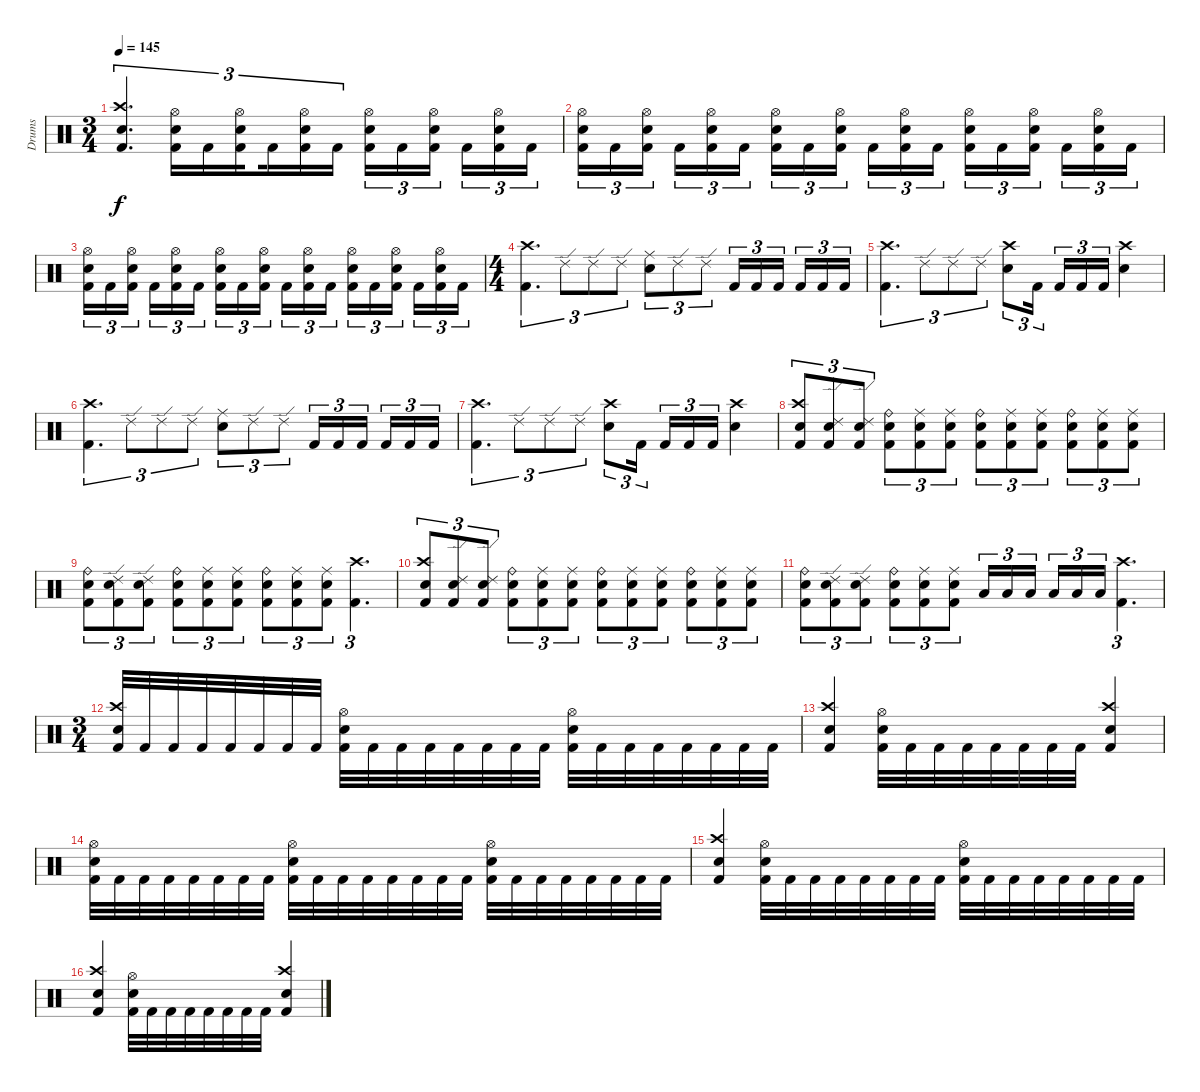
\track ("Drums" "Drums") {instrument percussion}
\staff {score}
\articulation defaults
\ts (3 4)
\tempo 145
\clef neutral
\ks c
("Kick (hit) 2" "Crash high (hit)" "Snare (hit) 2").4{d tu (3 2) dy f} ("Kick (hit) 2" "Snare (hit) 2" "Hi-Hat (open)").16{tu (3 2)} "Kick (hit) 2".16{tu (3 2)} ("Kick (hit) 2" "Snare (hit) 2" "Hi-Hat (open)").16{tu (3 2) beam splitsecondary} "Kick (hit) 2".16{tu (3 2)} ("Kick (hit) 2" "Snare (hit) 2" "Hi-Hat (open)").16{tu (3 2)} "Kick (hit) 2".16{tu (3 2)} ("Kick (hit) 2" "Snare (hit) 2" "Hi-Hat (open)").16{tu (3 2)} "Kick (hit) 2".16{tu (3 2)} ("Kick (hit) 2" "Snare (hit) 2" "Hi-Hat (open)").16{tu (3 2) beam splitsecondary} "Kick (hit) 2".16{tu (3 2)} ("Kick (hit) 2" "Snare (hit) 2" "Hi-Hat (open)").16{tu (3 2)} "Kick (hit) 2".16{tu (3 2)} |
("Kick (hit) 2" "Snare (hit) 2" "Hi-Hat (open)").16{tu (3 2)} "Kick (hit) 2".16{tu (3 2)} ("Kick (hit) 2" "Snare (hit) 2" "Hi-Hat (open)").16{tu (3 2) beam splitsecondary} "Kick (hit) 2".16{tu (3 2)} ("Kick (hit) 2" "Snare (hit) 2" "Hi-Hat (open)").16{tu (3 2)} "Kick (hit) 2".16{tu (3 2)} ("Kick (hit) 2" "Snare (hit) 2" "Hi-Hat (open)").16{tu (3 2)} "Kick (hit) 2".16{tu (3 2)} ("Kick (hit) 2" "Snare (hit) 2" "Hi-Hat (open)").16{tu (3 2) beam splitsecondary} "Kick (hit) 2".16{tu (3 2)} ("Kick (hit) 2" "Snare (hit) 2" "Hi-Hat (open)").16{tu (3 2)} "Kick (hit) 2".16{tu (3 2)} ("Kick (hit) 2" "Snare (hit) 2" "Hi-Hat (open)").16{tu (3 2)} "Kick (hit) 2".16{tu (3 2)} ("Kick (hit) 2" "Snare (hit) 2" "Hi-Hat (open)").16{tu (3 2) beam splitsecondary} "Kick (hit) 2".16{tu (3 2)} ("Kick (hit) 2" "Snare (hit) 2" "Hi-Hat (open)").16{tu (3 2)} "Kick (hit) 2".16{tu (3 2)} |
("Kick (hit) 2" "Snare (hit) 2" "Hi-Hat (open)").16{tu (3 2)} "Kick (hit) 2".16{tu (3 2)} ("Kick (hit) 2" "Snare (hit) 2" "Hi-Hat (open)").16{tu (3 2) beam splitsecondary} "Kick (hit) 2".16{tu (3 2)} ("Kick (hit) 2" "Snare (hit) 2" "Hi-Hat (open)").16{tu (3 2)} "Kick (hit) 2".16{tu (3 2)} ("Kick (hit) 2" "Snare (hit) 2" "Hi-Hat (open)").16{tu (3 2)} "Kick (hit) 2".16{tu (3 2)} ("Kick (hit) 2" "Snare (hit) 2" "Hi-Hat (open)").16{tu (3 2) beam splitsecondary} "Kick (hit) 2".16{tu (3 2)} ("Kick (hit) 2" "Snare (hit) 2" "Hi-Hat (open)").16{tu (3 2)} "Kick (hit) 2".16{tu (3 2)} ("Kick (hit) 2" "Snare (hit) 2" "Hi-Hat (open)").16{tu (3 2)} "Kick (hit) 2".16{tu (3 2)} ("Kick (hit) 2" "Snare (hit) 2" "Hi-Hat (open)").16{tu (3 2) beam splitsecondary} "Kick (hit) 2".16{tu (3 2)} ("Kick (hit) 2" "Snare (hit) 2" "Hi-Hat (open)").16{tu (3 2)} "Kick (hit) 2".16{tu (3 2)} |
\ts (4 4)
("Crash high (hit)" "Kick (hit) 2").4{d tu (3 2)} "Ride (edge) 2".8{tu (3 2)} "Ride (edge) 2".8{tu (3 2)} "Ride (edge) 2".8{tu (3 2)} ("Snare (hit) 2" "Ride (middle)").8{tu (3 2)} "Ride (edge) 2".8{tu (3 2)} "Ride (edge) 2".8{tu (3 2)} "Kick (hit) 2".16{tu (3 2)} "Kick (hit) 2".16{tu (3 2)} "Kick (hit) 2".16{tu (3 2) beam splitsecondary} "Kick (hit) 2".16{tu (3 2)} "Kick (hit) 2".16{tu (3 2)} "Kick (hit) 2".16{tu (3 2)} |
("Crash high (hit)" "Kick (hit) 2").4{d tu (3 2)} "Ride (edge) 2".8{tu (3 2)} "Ride (edge) 2".8{tu (3 2)} "Ride (edge) 2".8{tu (3 2)} ("Snare (hit) 2" "Crash high (hit)").8{tu (3 2)} "Kick (hit) 2".16{tu (3 2) beam splitsecondary} "Kick (hit) 2".16{tu (3 2)} "Kick (hit) 2".16{tu (3 2)} "Kick (hit) 2".16{tu (3 2)} ("Snare (hit) 2" "Crash high (hit)").4 |
("Crash high (hit)" "Kick (hit) 2").4{d tu (3 2)} "Ride (edge) 2".8{tu (3 2)} "Ride (edge) 2".8{tu (3 2)} "Ride (edge) 2".8{tu (3 2)} ("Snare (hit) 2" "Ride (middle)").8{tu (3 2)} "Ride (edge) 2".8{tu (3 2)} "Ride (edge) 2".8{tu (3 2)} "Kick (hit) 2".16{tu (3 2)} "Kick (hit) 2".16{tu (3 2)} "Kick (hit) 2".16{tu (3 2) beam splitsecondary} "Kick (hit) 2".16{tu (3 2)} "Kick (hit) 2".16{tu (3 2)} "Kick (hit) 2".16{tu (3 2)} |
("Crash high (hit)" "Kick (hit) 2").4{d tu (3 2)} "Ride (edge) 2".8{tu (3 2)} "Ride (edge) 2".8{tu (3 2)} "Ride (edge) 2".8{tu (3 2)} ("Snare (hit) 2" "Crash high (hit)").8{tu (3 2)} "Kick (hit) 2".16{tu (3 2) beam splitsecondary} "Kick (hit) 2".16{tu (3 2)} "Kick (hit) 2".16{tu (3 2)} "Kick (hit) 2".16{tu (3 2)} ("Snare (hit) 2" "Crash high (hit)").4 |
("Snare (hit) 2" "Crash high (hit)" "Kick (hit) 2").8{tu (3 2)} ("Snare (hit) 2" "Ride (edge) 2" "Kick (hit) 2").8{tu (3 2)} ("Snare (hit) 2" "Ride (edge) 2" "Kick (hit) 2").8{tu (3 2)} ("Snare (hit) 2" "Ride (bell)" "Kick (hit) 2").8{tu (3 2)} ("Snare (hit) 2" "Ride (middle)" "Kick (hit) 2").8{tu (3 2)} ("Snare (hit) 2" "Ride (middle)" "Kick (hit) 2").8{tu (3 2)} ("Snare (hit) 2" "Ride (bell)" "Kick (hit) 2").8{tu (3 2)} ("Snare (hit) 2" "Ride (middle)" "Kick (hit) 2").8{tu (3 2)} ("Snare (hit) 2" "Ride (middle)" "Kick (hit) 2").8{tu (3 2)} ("Snare (hit) 2" "Ride (bell)" "Kick (hit) 2").8{tu (3 2)} ("Snare (hit) 2" "Ride (middle)" "Kick (hit) 2").8{tu (3 2)} ("Snare (hit) 2" "Ride (middle)" "Kick (hit) 2").8{tu (3 2)} |
("Snare (hit) 2" "Ride (bell)" "Kick (hit) 2").8{tu (3 2)} ("Snare (hit) 2" "Ride (edge) 2" "Kick (hit) 2").8{tu (3 2)} ("Snare (hit) 2" "Ride (edge) 2" "Kick (hit) 2").8{tu (3 2)} ("Snare (hit) 2" "Ride (bell)" "Kick (hit) 2").8{tu (3 2)} ("Snare (hit) 2" "Ride (middle)" "Kick (hit) 2").8{tu (3 2)} ("Snare (hit) 2" "Ride (middle)" "Kick (hit) 2").8{tu (3 2)} ("Snare (hit) 2" "Ride (bell)" "Kick (hit) 2").8{tu (3 2)} ("Snare (hit) 2" "Ride (middle)" "Kick (hit) 2").8{tu (3 2)} ("Snare (hit) 2" "Ride (middle)" "Kick (hit) 2").8{tu (3 2)} ("Crash high (hit)" "Kick (hit) 2").4{d tu (3 2)} |
("Snare (hit) 2" "Crash high (hit)" "Kick (hit) 2").8{tu (3 2)} ("Snare (hit) 2" "Ride (edge) 2" "Kick (hit) 2").8{tu (3 2)} ("Snare (hit) 2" "Ride (edge) 2" "Kick (hit) 2").8{tu (3 2)} ("Snare (hit) 2" "Ride (bell)" "Kick (hit) 2").8{tu (3 2)} ("Snare (hit) 2" "Ride (middle)" "Kick (hit) 2").8{tu (3 2)} ("Snare (hit) 2" "Ride (middle)" "Kick (hit) 2").8{tu (3 2)} ("Snare (hit) 2" "Ride (bell)" "Kick (hit) 2").8{tu (3 2)} ("Snare (hit) 2" "Ride (middle)" "Kick (hit) 2").8{tu (3 2)} ("Snare (hit) 2" "Ride (middle)" "Kick (hit) 2").8{tu (3 2)} ("Snare (hit) 2" "Ride (bell)" "Kick (hit) 2").8{tu (3 2)} ("Snare (hit) 2" "Ride (middle)" "Kick (hit) 2").8{tu (3 2)} ("Snare (hit) 2" "Ride (middle)" "Kick (hit) 2").8{tu (3 2)} |
("Snare (hit) 2" "Ride (bell)" "Kick (hit) 2").8{tu (3 2)} ("Snare (hit) 2" "Ride (edge) 2" "Kick (hit) 2").8{tu (3 2)} ("Snare (hit) 2" "Ride (edge) 2" "Kick (hit) 2").8{tu (3 2)} ("Snare (hit) 2" "Ride (bell)" "Kick (hit) 2").8{tu (3 2)} ("Snare (hit) 2" "Ride (middle)" "Kick (hit) 2").8{tu (3 2)} ("Snare (hit) 2" "Ride (middle)" "Kick (hit) 2").8{tu (3 2)} "Low Tom (hit)".16{tu (3 2)} "Low Tom (hit)".16{tu (3 2)} "Low Tom (hit)".16{tu (3 2) beam splitsecondary} "Low Tom (hit)".16{tu (3 2)} "Low Tom (hit)".16{tu (3 2)} "Low Tom (hit)".16{tu (3 2)} ("Crash high (hit)" "Kick (hit) 2").4{d tu (3 2)} |
\ts (3 4)
("Kick (hit) 2" "Crash high (hit)" "Snare (hit) 2").32 "Kick (hit) 2".32 "Kick (hit) 2".32 "Kick (hit) 2".32 "Kick (hit) 2".32 "Kick (hit) 2".32 "Kick (hit) 2".32 "Kick (hit) 2".32 ("Kick (hit) 2" "Snare (hit) 2" "Hi-Hat (open)").32 "Kick (hit) 2".32 "Kick (hit) 2".32 "Kick (hit) 2".32 "Kick (hit) 2".32 "Kick (hit) 2".32 "Kick (hit) 2".32 "Kick (hit) 2".32 ("Kick (hit) 2" "Snare (hit) 2" "Hi-Hat (open)").32 "Kick (hit) 2".32 "Kick (hit) 2".32 "Kick (hit) 2".32 "Kick (hit) 2".32 "Kick (hit) 2".32 "Kick (hit) 2".32 "Kick (hit) 2".32 |
("Kick (hit) 2" "Crash high (hit)" "Snare (hit) 2").4 ("Kick (hit) 2" "Snare (hit) 2" "Hi-Hat (open)").32 "Kick (hit) 2".32 "Kick (hit) 2".32 "Kick (hit) 2".32 "Kick (hit) 2".32 "Kick (hit) 2".32 "Kick (hit) 2".32 "Kick (hit) 2".32 ("Kick (hit) 2" "Crash high (hit)" "Snare (hit) 2").4 |
("Kick (hit) 2" "Hi-Hat (open)" "Snare (hit) 2").32 "Kick (hit) 2".32 "Kick (hit) 2".32 "Kick (hit) 2".32 "Kick (hit) 2".32 "Kick (hit) 2".32 "Kick (hit) 2".32 "Kick (hit) 2".32 ("Kick (hit) 2" "Snare (hit) 2" "Hi-Hat (open)").32 "Kick (hit) 2".32 "Kick (hit) 2".32 "Kick (hit) 2".32 "Kick (hit) 2".32 "Kick (hit) 2".32 "Kick (hit) 2".32 "Kick (hit) 2".32 ("Kick (hit) 2" "Snare (hit) 2" "Hi-Hat (open)").32 "Kick (hit) 2".32 "Kick (hit) 2".32 "Kick (hit) 2".32 "Kick (hit) 2".32 "Kick (hit) 2".32 "Kick (hit) 2".32 "Kick (hit) 2".32 |
("Kick (hit) 2" "Crash high (hit)" "Snare (hit) 2").4 ("Kick (hit) 2" "Snare (hit) 2" "Hi-Hat (open)").32 "Kick (hit) 2".32 "Kick (hit) 2".32 "Kick (hit) 2".32 "Kick (hit) 2".32 "Kick (hit) 2".32 "Kick (hit) 2".32 "Kick (hit) 2".32 ("Kick (hit) 2" "Snare (hit) 2" "Hi-Hat (open)").32 "Kick (hit) 2".32 "Kick (hit) 2".32 "Kick (hit) 2".32 "Kick (hit) 2".32 "Kick (hit) 2".32 "Kick (hit) 2".32 "Kick (hit) 2".32 |
("Kick (hit) 2" "Crash high (hit)" "Snare (hit) 2").4 ("Kick (hit) 2" "Snare (hit) 2" "Hi-Hat (open)").32 "Kick (hit) 2".32 "Kick (hit) 2".32 "Kick (hit) 2".32 "Kick (hit) 2".32 "Kick (hit) 2".32 "Kick (hit) 2".32 "Kick (hit) 2".32 ("Kick (hit) 2" "Crash high (hit)" "Snare (hit) 2").4
